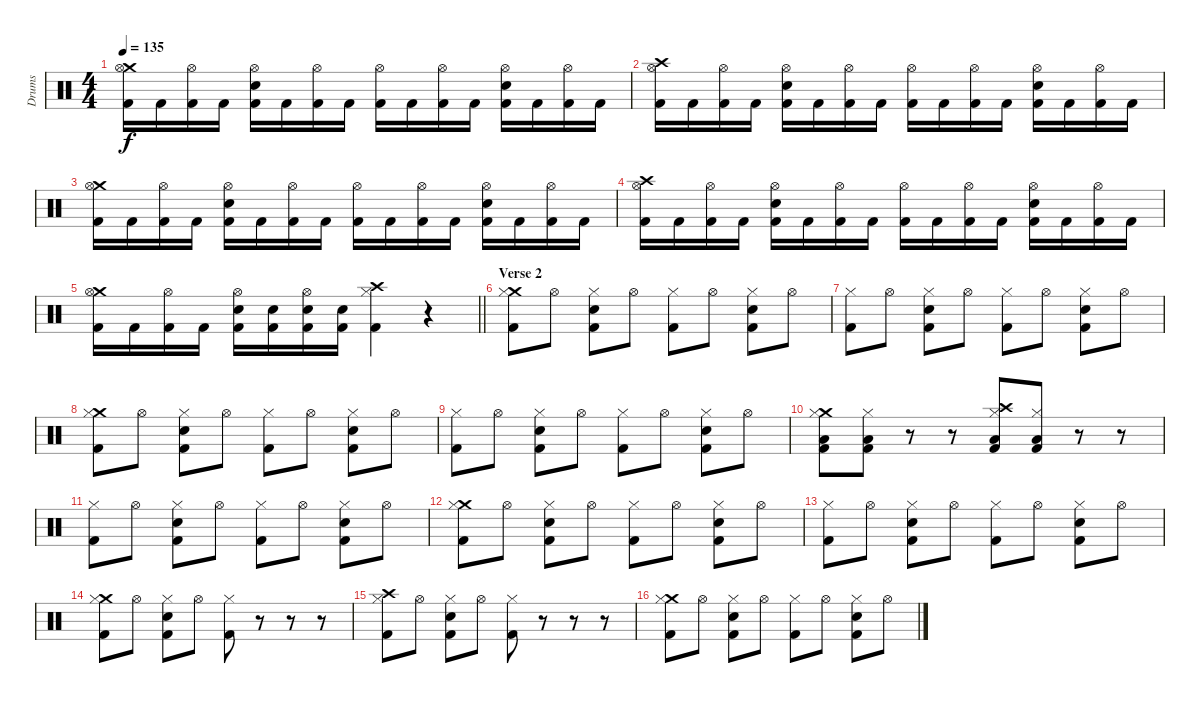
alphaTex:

\track ("Drums" "Drums") {instrument percussion}
\staff {score}
\articulation defaults
\ts (4 4)
\tempo 135
\clef neutral
\ks c
("Crash medium (hit)" "Hi-Hat (open)" "Kick (hit) 2").16{dy f} "Kick (hit) 2".16 ("Hi-Hat (open)" "Kick (hit) 2").16 "Kick (hit) 2".16 ("Hi-Hat (open)" "Snare (hit) 2" "Kick (hit) 2").16 "Kick (hit) 2".16 ("Hi-Hat (open)" "Kick (hit) 2").16 "Kick (hit) 2".16 ("Hi-Hat (open)" "Kick (hit) 2").16 "Kick (hit) 2".16 ("Hi-Hat (open)" "Kick (hit) 2").16 "Kick (hit) 2".16 ("Hi-Hat (open)" "Snare (hit) 2" "Kick (hit) 2").16 "Kick (hit) 2".16 ("Hi-Hat (open)" "Kick (hit) 2").16 "Kick (hit) 2".16 |
("Crash high (hit)" "Hi-Hat (open)" "Kick (hit) 2").16 "Kick (hit) 2".16 ("Hi-Hat (open)" "Kick (hit) 2").16 "Kick (hit) 2".16 ("Hi-Hat (open)" "Snare (hit) 2" "Kick (hit) 2").16 "Kick (hit) 2".16 ("Hi-Hat (open)" "Kick (hit) 2").16 "Kick (hit) 2".16 ("Hi-Hat (open)" "Kick (hit) 2").16 "Kick (hit) 2".16 ("Hi-Hat (open)" "Kick (hit) 2").16 "Kick (hit) 2".16 ("Hi-Hat (open)" "Snare (hit) 2" "Kick (hit) 2").16 "Kick (hit) 2".16 ("Hi-Hat (open)" "Kick (hit) 2").16 "Kick (hit) 2".16 |
("Crash medium (hit)" "Hi-Hat (open)" "Kick (hit) 2").16 "Kick (hit) 2".16 ("Hi-Hat (open)" "Kick (hit) 2").16 "Kick (hit) 2".16 ("Hi-Hat (open)" "Snare (hit) 2" "Kick (hit) 2").16 "Kick (hit) 2".16 ("Hi-Hat (open)" "Kick (hit) 2").16 "Kick (hit) 2".16 ("Hi-Hat (open)" "Kick (hit) 2").16 "Kick (hit) 2".16 ("Hi-Hat (open)" "Kick (hit) 2").16 "Kick (hit) 2".16 ("Hi-Hat (open)" "Snare (hit) 2" "Kick (hit) 2").16 "Kick (hit) 2".16 ("Hi-Hat (open)" "Kick (hit) 2").16 "Kick (hit) 2".16 |
("Crash high (hit)" "Hi-Hat (open)" "Kick (hit) 2").16 "Kick (hit) 2".16 ("Hi-Hat (open)" "Kick (hit) 2").16 "Kick (hit) 2".16 ("Hi-Hat (open)" "Snare (hit) 2" "Kick (hit) 2").16 "Kick (hit) 2".16 ("Hi-Hat (open)" "Kick (hit) 2").16 "Kick (hit) 2".16 ("Hi-Hat (open)" "Kick (hit) 2").16 "Kick (hit) 2".16 ("Hi-Hat (open)" "Kick (hit) 2").16 "Kick (hit) 2".16 ("Hi-Hat (open)" "Snare (hit) 2" "Kick (hit) 2").16 "Kick (hit) 2".16 ("Hi-Hat (open)" "Kick (hit) 2").16 "Kick (hit) 2".16 |
\barLineRight lightlight
("Crash medium (hit)" "Hi-Hat (open)" "Kick (hit) 2").16 "Kick (hit) 2".16 ("Hi-Hat (open)" "Kick (hit) 2").16 "Kick (hit) 2".16 ("Hi-Hat (open)" "Snare (hit) 2" "Kick (hit) 2").16 ("Snare (hit) 2" "Kick (hit) 2").16 ("Hi-Hat (open)" "Snare (hit) 2" "Kick (hit) 2").16 ("Snare (hit) 2" "Kick (hit) 2").16 ("Crash high (hit)" "Hi-Hat (closed)" "Kick (hit) 2").4 r.4 |
\section ("" "Verse 2")
("Crash medium (hit)" "Hi-Hat (closed)" "Kick (hit) 2").8 "Hi-Hat (open)".8 ("Hi-Hat (closed)" "Snare (hit) 2" "Kick (hit) 2").8 "Hi-Hat (open)".8 ("Hi-Hat (closed)" "Kick (hit) 2").8 "Hi-Hat (open)".8 ("Hi-Hat (closed)" "Snare (hit) 2" "Kick (hit) 2").8 "Hi-Hat (open)".8 |
("Hi-Hat (closed)" "Kick (hit) 2").8 "Hi-Hat (open)".8 ("Hi-Hat (closed)" "Snare (hit) 2" "Kick (hit) 2").8 "Hi-Hat (open)".8 ("Hi-Hat (closed)" "Kick (hit) 2").8 "Hi-Hat (open)".8 ("Hi-Hat (closed)" "Snare (hit) 2" "Kick (hit) 2").8 "Hi-Hat (open)".8 |
("Crash medium (hit)" "Hi-Hat (closed)" "Kick (hit) 2").8 "Hi-Hat (open)".8 ("Hi-Hat (closed)" "Snare (hit) 2" "Kick (hit) 2").8 "Hi-Hat (open)".8 ("Hi-Hat (closed)" "Kick (hit) 2").8 "Hi-Hat (open)".8 ("Hi-Hat (closed)" "Snare (hit) 2" "Kick (hit) 2").8 "Hi-Hat (open)".8 |
("Hi-Hat (closed)" "Kick (hit) 2").8 "Hi-Hat (open)".8 ("Hi-Hat (closed)" "Snare (hit) 2" "Kick (hit) 2").8 "Hi-Hat (open)".8 ("Hi-Hat (closed)" "Kick (hit) 2").8 "Hi-Hat (open)".8 ("Hi-Hat (closed)" "Snare (hit) 2" "Kick (hit) 2").8 "Hi-Hat (open)".8 |
("Crash medium (hit)" "Hi-Hat (closed)" "Low Floor Tom (hit)" "Kick (hit) 2").8 ("Hi-Hat (closed)" "Low Floor Tom (hit)" "Kick (hit) 2").8 r.8 r.8 ("Crash high (hit)" "Hi-Hat (closed)" "Low Floor Tom (hit)" "Kick (hit) 2").8 ("Hi-Hat (closed)" "Low Floor Tom (hit)" "Kick (hit) 2").8 r.8 r.8 |
("Hi-Hat (closed)" "Kick (hit) 2").8 "Hi-Hat (open)".8 ("Hi-Hat (closed)" "Snare (hit) 2" "Kick (hit) 2").8 "Hi-Hat (open)".8 ("Hi-Hat (closed)" "Kick (hit) 2").8 "Hi-Hat (open)".8 ("Hi-Hat (closed)" "Snare (hit) 2" "Kick (hit) 2").8 "Hi-Hat (open)".8 |
("Crash medium (hit)" "Hi-Hat (closed)" "Kick (hit) 2").8 "Hi-Hat (open)".8 ("Hi-Hat (closed)" "Snare (hit) 2" "Kick (hit) 2").8 "Hi-Hat (open)".8 ("Hi-Hat (closed)" "Kick (hit) 2").8 "Hi-Hat (open)".8 ("Hi-Hat (closed)" "Snare (hit) 2" "Kick (hit) 2").8 "Hi-Hat (open)".8 |
("Hi-Hat (closed)" "Kick (hit) 2").8 "Hi-Hat (open)".8 ("Hi-Hat (closed)" "Snare (hit) 2" "Kick (hit) 2").8 "Hi-Hat (open)".8 ("Hi-Hat (closed)" "Kick (hit) 2").8 "Hi-Hat (open)".8 ("Hi-Hat (closed)" "Snare (hit) 2" "Kick (hit) 2").8 "Hi-Hat (open)".8 |
("Crash medium (hit)" "Hi-Hat (closed)" "Kick (hit) 2").8 "Hi-Hat (open)".8 ("Hi-Hat (closed)" "Snare (hit) 2" "Kick (hit) 2").8 "Hi-Hat (open)".8 ("Hi-Hat (closed)" "Kick (hit) 2").8 r.8 r.8 r.8 |
("Crash high (hit)" "Hi-Hat (closed)" "Kick (hit) 2").8 "Hi-Hat (open)".8 ("Hi-Hat (closed)" "Snare (hit) 2" "Kick (hit) 2").8 "Hi-Hat (open)".8 ("Hi-Hat (closed)" "Kick (hit) 2").8 r.8 r.8 r.8 |
("Crash medium (hit)" "Hi-Hat (closed)" "Kick (hit) 2").8 "Hi-Hat (open)".8 ("Hi-Hat (closed)" "Snare (hit) 2" "Kick (hit) 2").8 "Hi-Hat (open)".8 ("Hi-Hat (closed)" "Kick (hit) 2").8 "Hi-Hat (open)".8 ("Hi-Hat (closed)" "Snare (hit) 2" "Kick (hit) 2").8 "Hi-Hat (open)".8
